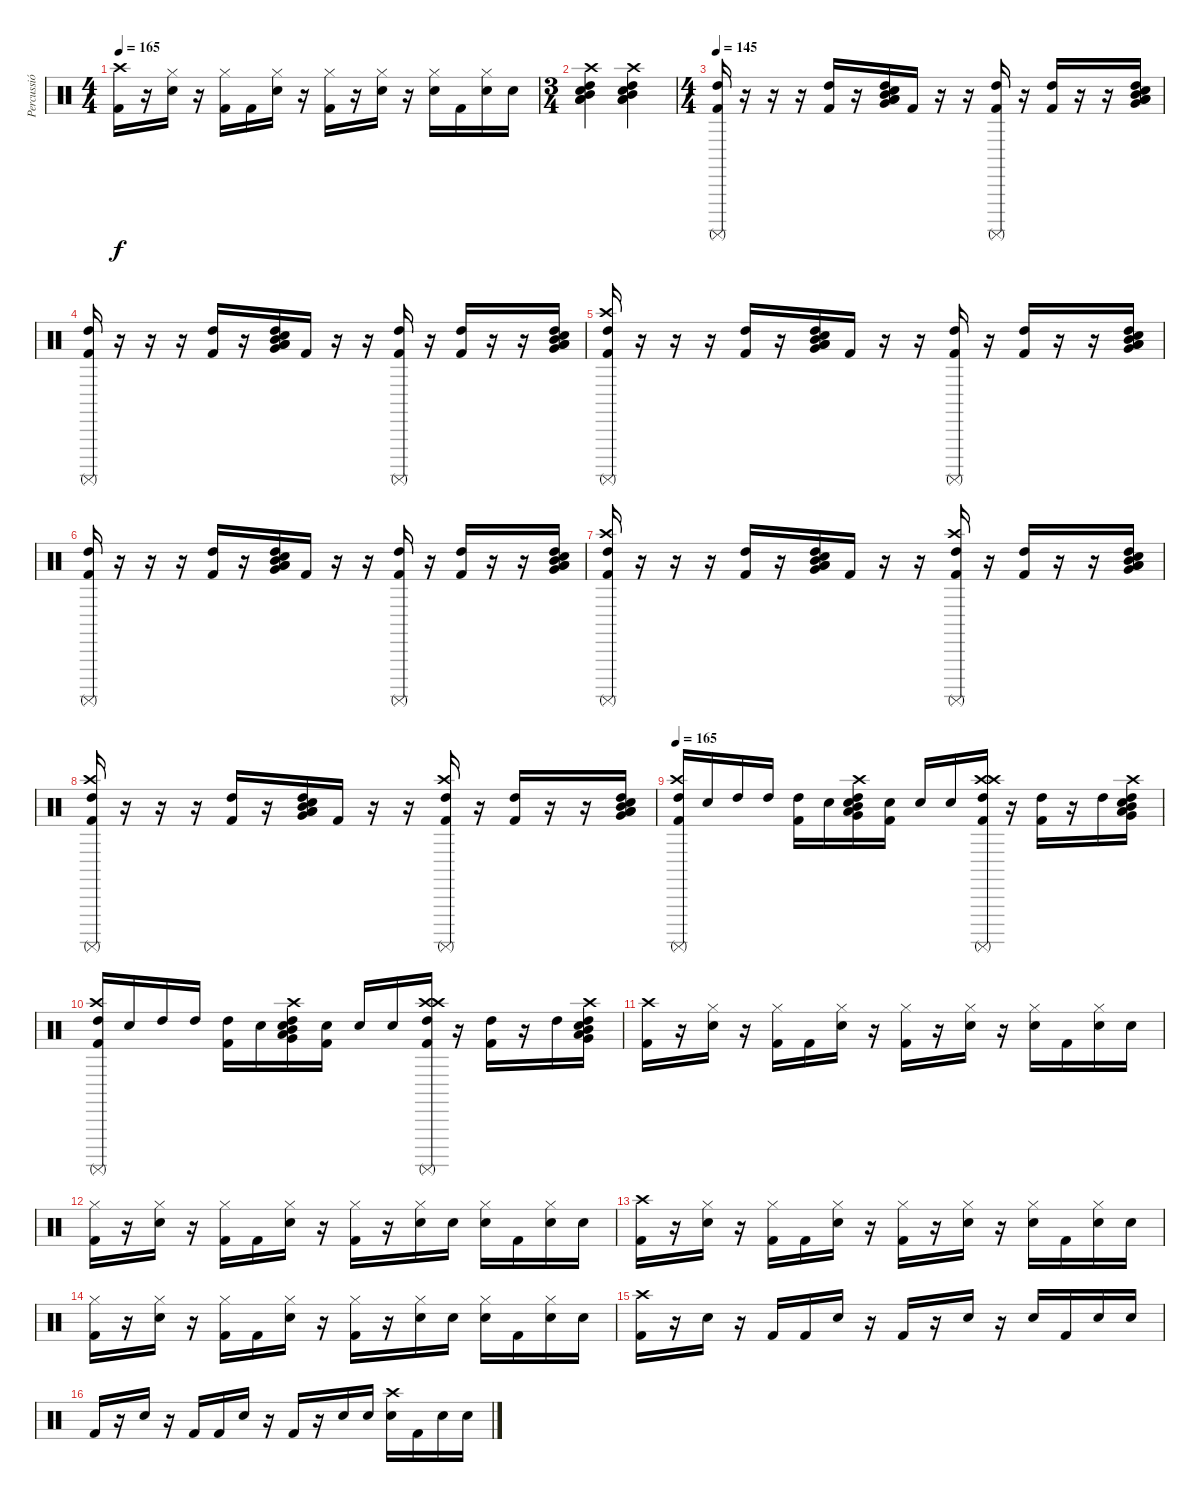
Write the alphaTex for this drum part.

\track ("Percussió" "Percussió") {instrument percussion}
\staff {score}
\articulation defaults
\ts (4 4)
\tempo 165
\clef neutral
\ks c
("Crash high (hit)" "Kick (hit) 2").16{dy f} r.16 ("Hi-Hat (closed)" "Electric Snare (hit)").16 r.16 ("Hi-Hat (closed)" "Kick (hit) 2").16 "Kick (hit) 2".16 ("Hi-Hat (closed)" "Electric Snare (hit)").16 r.16 ("Hi-Hat (closed)" "Kick (hit) 2").16 r.16 ("Hi-Hat (closed)" "Electric Snare (hit)").16 r.16 ("Hi-Hat (closed)" "Electric Snare (hit)").16 "Kick (hit) 2".16 ("Hi-Hat (closed)" "Electric Snare (hit)").16 "Electric Snare (hit)".16 |
\ts (3 4)
("Low Floor Tom (hit)" "Crash high (hit)" "Low Tom (hit)" "Mid Tom (hit)" "High Tom (hit)" "Electric Snare (hit)").4 ("Low Floor Tom (hit)" "Crash high (hit)" "Low Tom (hit)" "Mid Tom (hit)" "High Tom (hit)" "Electric Snare (hit)").4 |
\ts (4 4)
\tempo 145
("Surdo (mute)" "High Tom (hit)" "Kick (hit) 2").16 r.16 r.16 r.16 ("High Tom (hit)" "Kick (hit) 2").16 r.16 ("Low Floor Tom (hit)" "Very Low Tom (hit)" "Low Tom (hit)" "Mid Tom (hit)" "High Tom (hit)" "Electric Snare (hit)").16 "Kick (hit) 2".16 r.16 r.16 ("Surdo (mute)" "High Tom (hit)" "Kick (hit) 2").16 r.16 ("High Tom (hit)" "Kick (hit) 2").16 r.16 r.16 ("Low Floor Tom (hit)" "Very Low Tom (hit)" "Low Tom (hit)" "Mid Tom (hit)" "High Tom (hit)" "Electric Snare (hit)").16 |
("Surdo (mute)" "High Tom (hit)" "Kick (hit) 2").16 r.16 r.16 r.16 ("High Tom (hit)" "Kick (hit) 2").16 r.16 ("Low Floor Tom (hit)" "Very Low Tom (hit)" "Low Tom (hit)" "Mid Tom (hit)" "High Tom (hit)" "Electric Snare (hit)").16 "Kick (hit) 2".16 r.16 r.16 ("Surdo (mute)" "High Tom (hit)" "Kick (hit) 2").16 r.16 ("High Tom (hit)" "Kick (hit) 2").16 r.16 r.16 ("Low Floor Tom (hit)" "Very Low Tom (hit)" "Low Tom (hit)" "Mid Tom (hit)" "High Tom (hit)" "Electric Snare (hit)").16 |
("Crash high (hit)" "Surdo (mute)" "High Tom (hit)" "Kick (hit) 2").16 r.16 r.16 r.16 ("High Tom (hit)" "Kick (hit) 2").16 r.16 ("Low Floor Tom (hit)" "Very Low Tom (hit)" "Low Tom (hit)" "Mid Tom (hit)" "High Tom (hit)" "Electric Snare (hit)").16 "Kick (hit) 2".16 r.16 r.16 ("Surdo (mute)" "High Tom (hit)" "Kick (hit) 2").16 r.16 ("High Tom (hit)" "Kick (hit) 2").16 r.16 r.16 ("Low Floor Tom (hit)" "Very Low Tom (hit)" "Low Tom (hit)" "Mid Tom (hit)" "High Tom (hit)" "Electric Snare (hit)").16 |
("Surdo (mute)" "High Tom (hit)" "Kick (hit) 2").16 r.16 r.16 r.16 ("High Tom (hit)" "Kick (hit) 2").16 r.16 ("Low Floor Tom (hit)" "Very Low Tom (hit)" "Low Tom (hit)" "Mid Tom (hit)" "High Tom (hit)" "Electric Snare (hit)").16 "Kick (hit) 2".16 r.16 r.16 ("Surdo (mute)" "High Tom (hit)" "Kick (hit) 2").16 r.16 ("High Tom (hit)" "Kick (hit) 2").16 r.16 r.16 ("Low Floor Tom (hit)" "Very Low Tom (hit)" "Low Tom (hit)" "Mid Tom (hit)" "High Tom (hit)" "Electric Snare (hit)").16 |
("Crash high (hit)" "Surdo (mute)" "High Tom (hit)" "Kick (hit) 2").16 r.16 r.16 r.16 ("High Tom (hit)" "Kick (hit) 2").16 r.16 ("Low Floor Tom (hit)" "Very Low Tom (hit)" "Low Tom (hit)" "Mid Tom (hit)" "High Tom (hit)" "Electric Snare (hit)").16 "Kick (hit) 2".16 r.16 r.16 ("Crash high (hit)" "Surdo (mute)" "High Tom (hit)" "Kick (hit) 2").16 r.16 ("High Tom (hit)" "Kick (hit) 2").16 r.16 r.16 ("Low Floor Tom (hit)" "Very Low Tom (hit)" "Low Tom (hit)" "Mid Tom (hit)" "High Tom (hit)" "Electric Snare (hit)").16 |
("Crash high (hit)" "Surdo (mute)" "High Tom (hit)" "Kick (hit) 2").16 r.16 r.16 r.16 ("High Tom (hit)" "Kick (hit) 2").16 r.16 ("Low Floor Tom (hit)" "Very Low Tom (hit)" "Low Tom (hit)" "Mid Tom (hit)" "High Tom (hit)" "Electric Snare (hit)").16 "Kick (hit) 2".16 r.16 r.16 ("Crash high (hit)" "Surdo (mute)" "High Tom (hit)" "Kick (hit) 2").16 r.16 ("High Tom (hit)" "Kick (hit) 2").16 r.16 r.16 ("Low Floor Tom (hit)" "Very Low Tom (hit)" "Low Tom (hit)" "Mid Tom (hit)" "High Tom (hit)" "Electric Snare (hit)").16 |
\tempo 165
("Crash high (hit)" "Surdo (mute)" "High Tom (hit)" "Kick (hit) 2").16 "Electric Snare (hit)".16 "High Tom (hit)".16 "High Tom (hit)".16 ("High Tom (hit)" "Kick (hit) 2").16 "Electric Snare (hit)".16 ("Crash high (hit)" "Very Low Tom (hit)" "Low Tom (hit)" "Mid Tom (hit)" "High Tom (hit)" "Electric Snare (hit)").16 ("Electric Snare (hit)" "Kick (hit) 2").16 "Electric Snare (hit)".16 "Electric Snare (hit)".16 ("Crash high (hit)" "Crash high (hit)" "Surdo (mute)" "High Tom (hit)" "Kick (hit) 2").16 r.16 ("High Tom (hit)" "Kick (hit) 2").16 r.16 "High Tom (hit)".16 ("Crash high (hit)" "Very Low Tom (hit)" "Low Tom (hit)" "Mid Tom (hit)" "High Tom (hit)" "Electric Snare (hit)").16 |
("Crash high (hit)" "Surdo (mute)" "High Tom (hit)" "Kick (hit) 2").16 "Electric Snare (hit)".16 "High Tom (hit)".16 "High Tom (hit)".16 ("High Tom (hit)" "Kick (hit) 2").16 "Electric Snare (hit)".16 ("Crash high (hit)" "Very Low Tom (hit)" "Low Tom (hit)" "Mid Tom (hit)" "High Tom (hit)" "Electric Snare (hit)").16 ("Electric Snare (hit)" "Kick (hit) 2").16 "Electric Snare (hit)".16 "Electric Snare (hit)".16 ("Crash high (hit)" "Crash high (hit)" "Surdo (mute)" "High Tom (hit)" "Kick (hit) 2").16 r.16 ("High Tom (hit)" "Kick (hit) 2").16 r.16 "High Tom (hit)".16 ("Crash high (hit)" "Very Low Tom (hit)" "Low Tom (hit)" "Mid Tom (hit)" "High Tom (hit)" "Electric Snare (hit)").16 |
("Crash high (hit)" "Kick (hit) 2").16 r.16 ("Hi-Hat (closed)" "Electric Snare (hit)").16 r.16 ("Hi-Hat (closed)" "Kick (hit) 2").16 "Kick (hit) 2".16 ("Hi-Hat (closed)" "Electric Snare (hit)").16 r.16 ("Hi-Hat (closed)" "Kick (hit) 2").16 r.16 ("Hi-Hat (closed)" "Electric Snare (hit)").16 r.16 ("Hi-Hat (closed)" "Electric Snare (hit)").16 "Kick (hit) 2".16 ("Hi-Hat (closed)" "Electric Snare (hit)").16 "Electric Snare (hit)".16 |
("Hi-Hat (closed)" "Kick (hit) 2").16 r.16 ("Hi-Hat (closed)" "Electric Snare (hit)").16 r.16 ("Hi-Hat (closed)" "Kick (hit) 2").16 "Kick (hit) 2".16 ("Hi-Hat (closed)" "Electric Snare (hit)").16 r.16 ("Hi-Hat (closed)" "Kick (hit) 2").16 r.16 ("Hi-Hat (closed)" "Electric Snare (hit)").16 "Electric Snare (hit)".16 ("Hi-Hat (closed)" "Electric Snare (hit)").16 "Kick (hit) 2".16 ("Hi-Hat (closed)" "Electric Snare (hit)").16 "Electric Snare (hit)".16 |
("Crash high (hit)" "Kick (hit) 2").16 r.16 ("Hi-Hat (closed)" "Electric Snare (hit)").16 r.16 ("Hi-Hat (closed)" "Kick (hit) 2").16 "Kick (hit) 2".16 ("Hi-Hat (closed)" "Electric Snare (hit)").16 r.16 ("Hi-Hat (closed)" "Kick (hit) 2").16 r.16 ("Hi-Hat (closed)" "Electric Snare (hit)").16 r.16 ("Hi-Hat (closed)" "Electric Snare (hit)").16 "Kick (hit) 2".16 ("Hi-Hat (closed)" "Electric Snare (hit)").16 "Electric Snare (hit)".16 |
("Hi-Hat (closed)" "Kick (hit) 2").16 r.16 ("Hi-Hat (closed)" "Electric Snare (hit)").16 r.16 ("Hi-Hat (closed)" "Kick (hit) 2").16 "Kick (hit) 2".16 ("Hi-Hat (closed)" "Electric Snare (hit)").16 r.16 ("Hi-Hat (closed)" "Kick (hit) 2").16 r.16 ("Hi-Hat (closed)" "Electric Snare (hit)").16 "Electric Snare (hit)".16 ("Hi-Hat (closed)" "Electric Snare (hit)").16 "Kick (hit) 2".16 ("Hi-Hat (closed)" "Electric Snare (hit)").16 "Electric Snare (hit)".16 |
("Crash high (hit)" "Kick (hit) 2").16 r.16 "Electric Snare (hit)".16 r.16 "Kick (hit) 2".16 "Kick (hit) 2".16 "Electric Snare (hit)".16 r.16 "Kick (hit) 2".16 r.16 "Electric Snare (hit)".16 r.16 "Electric Snare (hit)".16 "Kick (hit) 2".16 "Electric Snare (hit)".16 "Electric Snare (hit)".16 |
"Kick (hit) 2".16 r.16 "Electric Snare (hit)".16 r.16 "Kick (hit) 2".16 "Kick (hit) 2".16 "Electric Snare (hit)".16 r.16 "Kick (hit) 2".16 r.16 "Electric Snare (hit)".16 "Electric Snare (hit)".16 ("Crash high (hit)" "Electric Snare (hit)").16 "Kick (hit) 2".16 "Electric Snare (hit)".16 "Electric Snare (hit)".16
